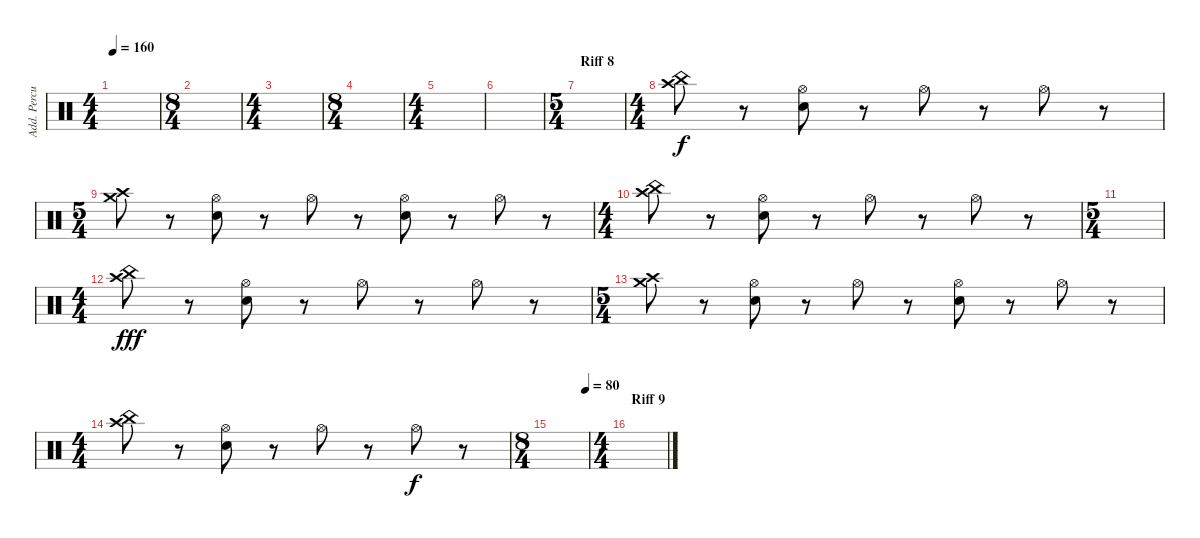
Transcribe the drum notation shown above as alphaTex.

\track ("Add. Percussion" "Add. Percu") {instrument percussion}
\staff {score}
\articulation defaults
\ts (4 4)
\tempo 160
\clef neutral
\ks c
|
\ts (8 4)
|
\ts (4 4)
|
\ts (8 4)
|
\ts (4 4)
|
|
\ts (5 4)
\section ("" "Riff 8")
|
\ts (4 4)
("China (hit)" "Crash high (hit)").8 r.8 ("Hi-Hat (open)" "Electric Snare (hit)").8 r.8 "Hi-Hat (open)".8 r.8 "Hi-Hat (open)".8 r.8 |
\ts (5 4)
("Crash medium (hit)" "Crash high (hit)").8 r.8 ("Hi-Hat (open)" "Electric Snare (hit)").8 r.8 "Hi-Hat (open)".8 r.8 ("Hi-Hat (open)" "Electric Snare (hit)").8 r.8 "Hi-Hat (open)".8 r.8 |
\ts (4 4)
("China (hit)" "Crash high (hit)").8 r.8 ("Hi-Hat (open)" "Electric Snare (hit)").8 r.8 "Hi-Hat (open)".8 r.8 "Hi-Hat (open)".8{dy f} r.8 |
\ts (5 4)
|
\ts (4 4)
("China (hit)" "Crash high (hit)").8{dy fff} r.8 ("Hi-Hat (open)" "Electric Snare (hit)").8 r.8 "Hi-Hat (open)".8 r.8 "Hi-Hat (open)".8 r.8 |
\ts (5 4)
("Crash medium (hit)" "Crash high (hit)").8 r.8 ("Hi-Hat (open)" "Electric Snare (hit)").8 r.8 "Hi-Hat (open)".8 r.8 ("Hi-Hat (open)" "Electric Snare (hit)").8 r.8 "Hi-Hat (open)".8 r.8 |
\ts (4 4)
("China (hit)" "Crash high (hit)").8 r.8 ("Hi-Hat (open)" "Electric Snare (hit)").8 r.8 "Hi-Hat (open)".8 r.8 "Hi-Hat (open)".8{dy f} r.8 |
\ts (8 4)
\tempo (80 0.9375)
|
\ts (4 4)
\section ("" "Riff 9")
